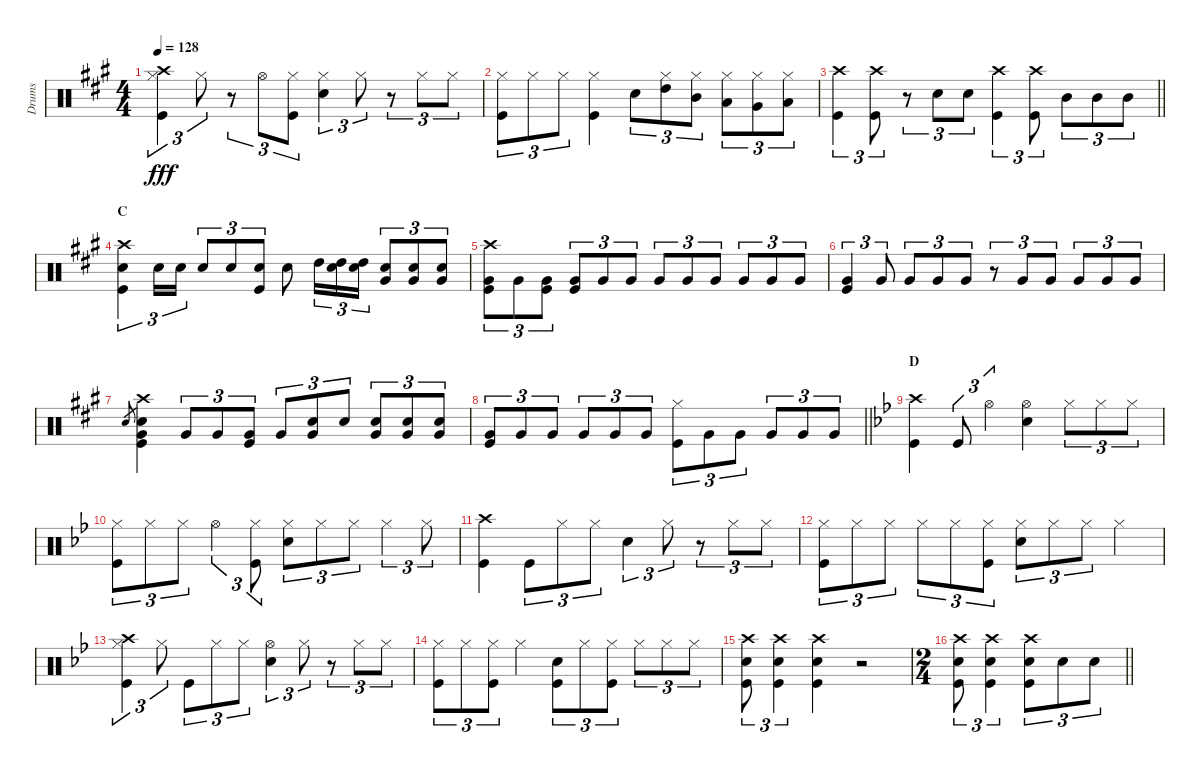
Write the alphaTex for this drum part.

\track ("Drums" "Drums") {instrument percussion}
\staff {score}
\articulation defaults
\ts (4 4)
\tempo 128
\clef neutral
\ks a
("Hi-Hat (closed)" "Crash high (hit)" "Kick (hit)").4{tu (3 2) dy fff} "Hi-Hat (closed)".8{tu (3 2)} r.8{tu (3 2)} "Hi-Hat (open)".8{tu (3 2)} ("Hi-Hat (closed)" "Kick (hit)").8{tu (3 2)} ("Hi-Hat (closed)" "Snare (hit) 2").4{tu (3 2)} "Hi-Hat (closed)".8{tu (3 2)} r.8{tu (3 2)} "Hi-Hat (closed)".8{tu (3 2)} "Hi-Hat (closed)".8{tu (3 2)} |
("Hi-Hat (closed)" "Kick (hit)").8{tu (3 2)} "Hi-Hat (closed)".8{tu (3 2)} "Hi-Hat (closed)".8{tu (3 2)} ("Hi-Hat (closed)" "Kick (hit)").4 "Snare (hit) 2".8{tu (3 2)} ("Hi-Hat (closed)" "High Tom (hit)").8{tu (3 2)} ("Hi-Hat (closed)" "Mid Tom (hit)").8{tu (3 2)} ("Hi-Hat (closed)" "Low Tom (hit)").8{tu (3 2)} ("Hi-Hat (closed)" "Very Low Tom (hit)").8{tu (3 2)} ("Hi-Hat (closed)" "Low Floor Tom (hit)").8{tu (3 2)} |
\barLineRight lightlight
("Crash high (hit)" "Kick (hit)").4{tu (3 2)} ("Crash high (hit)" "Kick (hit)").8{tu (3 2)} r.8{tu (3 2)} "Snare (hit) 2".8{tu (3 2)} "Snare (hit) 2".8{tu (3 2)} ("Crash high (hit)" "Kick (hit)").4{tu (3 2)} ("Crash high (hit)" "Kick (hit)").8{tu (3 2)} "Mid Tom (hit)".8{tu (3 2)} "Mid Tom (hit)".8{tu (3 2)} "Mid Tom (hit)".8{tu (3 2)} |
\section ("" "C")
("Crash high (hit)" "Snare (hit) 2" "Kick (hit)").4{tu (3 2)} "Snare (hit) 2".16{tu (3 2)} "Snare (hit) 2".16{tu (3 2)} "Snare (hit) 2".8{tu (3 2)} "Snare (hit) 2".8{tu (3 2)} ("Snare (hit) 2" "Kick (hit)").8{tu (3 2)} "Snare (hit) 2".8 "High Tom (hit)".16{tu (3 2)} ("High Tom (hit)" "Snare (hit) 2").16{tu (3 2)} ("High Tom (hit)" "Snare (hit) 2").16{tu (3 2)} ("Very Low Tom (hit)" "Snare (hit) 2").8{tu (3 2)} ("Very Low Tom (hit)" "Snare (hit) 2").8{tu (3 2)} ("Very Low Tom (hit)" "Snare (hit) 2").8{tu (3 2)} |
("Crash high (hit)" "Very Low Tom (hit)" "Kick (hit)").8{tu (3 2)} "Very Low Tom (hit)".8{tu (3 2)} ("Very Low Tom (hit)" "Kick (hit)").8{tu (3 2)} ("Very Low Tom (hit)" "Kick (hit)").8{tu (3 2)} "Very Low Tom (hit)".8{tu (3 2)} "Very Low Tom (hit)".8{tu (3 2)} "Very Low Tom (hit)".8{tu (3 2)} "Very Low Tom (hit)".8{tu (3 2)} "Very Low Tom (hit)".8{tu (3 2)} "Very Low Tom (hit)".8{tu (3 2)} "Very Low Tom (hit)".8{tu (3 2)} "Very Low Tom (hit)".8{tu (3 2)} |
("Very Low Tom (hit)" "Kick (hit)").4{tu (3 2)} "Very Low Tom (hit)".8{tu (3 2)} "Very Low Tom (hit)".8{tu (3 2)} "Very Low Tom (hit)".8{tu (3 2)} "Very Low Tom (hit)".8{tu (3 2)} r.8{tu (3 2)} "Very Low Tom (hit)".8{tu (3 2)} "Very Low Tom (hit)".8{tu (3 2)} "Very Low Tom (hit)".8{tu (3 2)} "Very Low Tom (hit)".8{tu (3 2)} "Very Low Tom (hit)".8{tu (3 2)} |
"Snare (hit) 2".8{gr} ("Crash high (hit)" "Very Low Tom (hit)" "Snare (hit) 2" "Kick (hit)").4 "Very Low Tom (hit)".8{tu (3 2)} "Very Low Tom (hit)".8{tu (3 2)} ("Very Low Tom (hit)" "Kick (hit)").8{tu (3 2)} "Very Low Tom (hit)".8{tu (3 2)} ("Very Low Tom (hit)" "Snare (hit) 2").8{tu (3 2)} "Snare (hit) 2".8{tu (3 2)} ("Very Low Tom (hit)" "Snare (hit) 2").8{tu (3 2)} ("Very Low Tom (hit)" "Snare (hit) 2").8{tu (3 2)} ("Very Low Tom (hit)" "Snare (hit) 2").8{tu (3 2)} |
\barLineRight lightlight
("Very Low Tom (hit)" "Kick (hit)").8{tu (3 2)} "Very Low Tom (hit)".8{tu (3 2)} "Very Low Tom (hit)".8{tu (3 2)} "Very Low Tom (hit)".8{tu (3 2)} "Very Low Tom (hit)".8{tu (3 2)} "Very Low Tom (hit)".8{tu (3 2)} ("Hi-Hat (closed)" "Kick (hit)").8{tu (3 2)} "Very Low Tom (hit)".8{tu (3 2)} "Very Low Tom (hit)".8{tu (3 2)} "Very Low Tom (hit)".8{tu (3 2)} "Very Low Tom (hit)".8{tu (3 2)} "Very Low Tom (hit)".8{tu (3 2)} |
\section ("" "D")
\ks bb
("Crash high (hit)" "Kick (hit)").4 "Kick (hit)".8{tu (3 2)} "Hi-Hat (open)".4{tu (3 2)} ("Hi-Hat (open)" "Snare (hit) 2").4 "Hi-Hat (closed)".8{tu (3 2)} "Hi-Hat (closed)".8{tu (3 2)} "Hi-Hat (closed)".8{tu (3 2)} |
("Hi-Hat (closed)" "Kick (hit)").8{tu (3 2)} "Hi-Hat (closed)".8{tu (3 2)} "Hi-Hat (closed)".8{tu (3 2)} "Hi-Hat (open)".4{tu (3 2)} ("Hi-Hat (closed)" "Kick (hit)").8{tu (3 2)} ("Hi-Hat (closed)" "Snare (hit) 2").8{tu (3 2)} "Hi-Hat (closed)".8{tu (3 2)} "Hi-Hat (closed)".8{tu (3 2)} "Hi-Hat (closed)".4{tu (3 2)} "Hi-Hat (closed)".8{tu (3 2)} |
("Crash high (hit)" "Kick (hit)").4 "Kick (hit)".8{tu (3 2)} "Hi-Hat (closed)".8{tu (3 2)} "Hi-Hat (closed)".8{tu (3 2)} "Snare (hit) 2".4{tu (3 2)} "Hi-Hat (closed)".8{tu (3 2)} r.8{tu (3 2)} "Hi-Hat (closed)".8{tu (3 2)} "Hi-Hat (closed)".8{tu (3 2)} |
("Hi-Hat (closed)" "Kick (hit)").8{tu (3 2)} "Hi-Hat (closed)".8{tu (3 2)} "Hi-Hat (closed)".8{tu (3 2)} "Hi-Hat (closed)".8{tu (3 2)} "Hi-Hat (closed)".8{tu (3 2)} ("Hi-Hat (closed)" "Kick (hit)").8{tu (3 2)} ("Hi-Hat (closed)" "Snare (hit) 2").8{tu (3 2)} "Hi-Hat (closed)".8{tu (3 2)} "Hi-Hat (closed)".8{tu (3 2)} "Hi-Hat (closed)".4 |
("Hi-Hat (closed)" "Crash high (hit)" "Kick (hit)").4{tu (3 2)} "Hi-Hat (closed)".8{tu (3 2)} "Kick (hit)".8{tu (3 2)} "Hi-Hat (closed)".8{tu (3 2)} "Hi-Hat (closed)".8{tu (3 2)} ("Hi-Hat (open)" "Snare (hit) 2").4{tu (3 2)} "Hi-Hat (closed)".8{tu (3 2)} r.8{tu (3 2)} "Hi-Hat (closed)".8{tu (3 2)} "Hi-Hat (closed)".8{tu (3 2)} |
("Hi-Hat (closed)" "Kick (hit)").8{tu (3 2)} "Hi-Hat (closed)".8{tu (3 2)} ("Hi-Hat (closed)" "Kick (hit)").8{tu (3 2)} "Hi-Hat (closed)".4 ("Snare (hit) 2" "Kick (hit)").8{tu (3 2)} "Hi-Hat (closed)".8{tu (3 2)} ("Hi-Hat (closed)" "Kick (hit)").8{tu (3 2)} "Hi-Hat (closed)".8{tu (3 2)} "Hi-Hat (closed)".8{tu (3 2)} "Hi-Hat (closed)".8{tu (3 2)} |
("Crash high (hit)" "Snare (hit) 2" "Kick (hit)").8{tu (3 2)} ("Crash high (hit)" "Snare (hit) 2" "Kick (hit)").4{tu (3 2)} ("Crash high (hit)" "Snare (hit) 2" "Kick (hit)").4 r.2 |
\ts (2 4)
\barLineRight lightlight
("Crash high (hit)" "Snare (hit) 2" "Kick (hit)").8{tu (3 2)} ("Crash high (hit)" "Snare (hit) 2" "Kick (hit)").4{tu (3 2)} ("Crash high (hit)" "Snare (hit) 2" "Kick (hit)").8{tu (3 2)} "Snare (hit) 2".8{tu (3 2)} "Snare (hit) 2".8{tu (3 2)}
